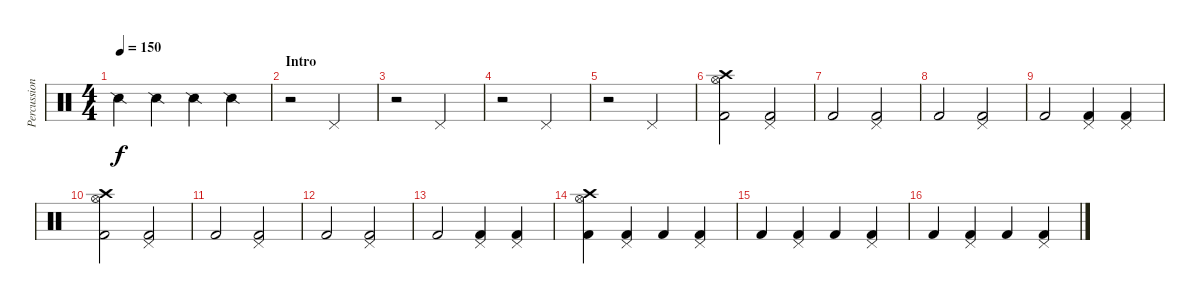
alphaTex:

\track ("Percussion" "Percussion") {instrument percussion}
\staff {score}
\articulation defaults
\ts (4 4)
\tempo 150
\clef neutral
\ks c "Snare (side stick) 2".4{dy f} "Snare (side stick) 2".4 "Snare (side stick) 2".4 "Snare (side stick) 2".4
|
\section ("" "Intro")
r.2 "Pedal Hi-Hat (hit)".2 |
r.2 "Pedal Hi-Hat (hit)".2 |
r.2 "Pedal Hi-Hat (hit)".2 |
r.2 "Pedal Hi-Hat (hit)".2 |
("Crash high (hit)" "Hi-Hat (open)" "Kick (hit) 2").2 ("Pedal Hi-Hat (hit)" "Kick (hit) 2").2 |
"Kick (hit) 2".2 ("Pedal Hi-Hat (hit)" "Kick (hit) 2").2 |
"Kick (hit) 2".2 ("Pedal Hi-Hat (hit)" "Kick (hit) 2").2 |
"Kick (hit) 2".2 ("Pedal Hi-Hat (hit)" "Kick (hit) 2").4 ("Pedal Hi-Hat (hit)" "Kick (hit) 2").4 |
("Crash high (hit)" "Hi-Hat (open)" "Kick (hit) 2").2 ("Pedal Hi-Hat (hit)" "Kick (hit) 2").2 |
"Kick (hit) 2".2 ("Pedal Hi-Hat (hit)" "Kick (hit) 2").2 |
"Kick (hit) 2".2 ("Pedal Hi-Hat (hit)" "Kick (hit) 2").2 |
"Kick (hit) 2".2 ("Pedal Hi-Hat (hit)" "Kick (hit) 2").4 ("Pedal Hi-Hat (hit)" "Kick (hit) 2").4 |
("Crash high (hit)" "Hi-Hat (open)" "Kick (hit) 2").4 ("Pedal Hi-Hat (hit)" "Kick (hit) 2").4 "Kick (hit) 2".4 ("Pedal Hi-Hat (hit)" "Kick (hit) 2").4 |
"Kick (hit) 2".4 ("Pedal Hi-Hat (hit)" "Kick (hit) 2").4 "Kick (hit) 2".4 ("Pedal Hi-Hat (hit)" "Kick (hit) 2").4 |
"Kick (hit) 2".4 ("Pedal Hi-Hat (hit)" "Kick (hit) 2").4 "Kick (hit) 2".4 ("Pedal Hi-Hat (hit)" "Kick (hit) 2").4
